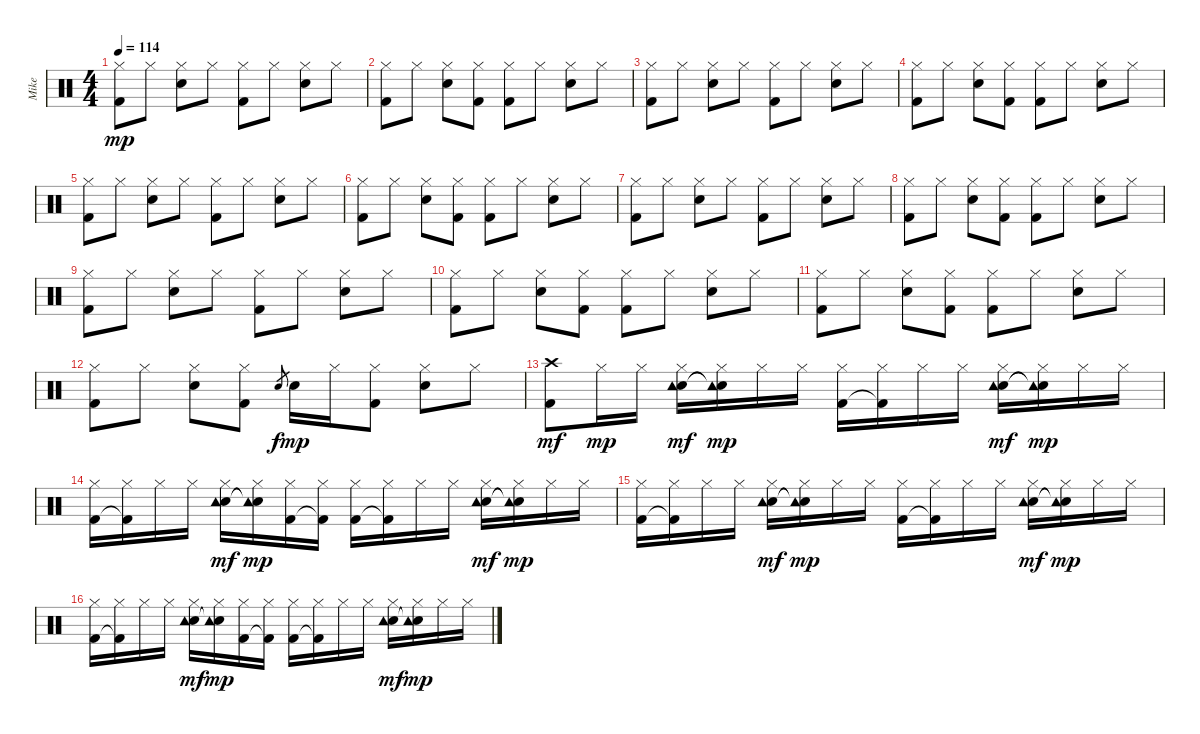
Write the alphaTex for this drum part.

\track ("Mike" "Mike") {instrument percussion}
\staff {score}
\articulation defaults
\ts (4 4)
\tempo 114
\clef neutral
\ks c
("Hi-Hat (closed)" "Kick (hit) 2").8{dy mp} "Hi-Hat (closed)".8 ("Hi-Hat (closed)" "Electric Snare (hit)").8 "Hi-Hat (closed)".8 ("Hi-Hat (closed)" "Kick (hit) 2").8 "Hi-Hat (closed)".8 ("Hi-Hat (closed)" "Electric Snare (hit)").8 "Hi-Hat (closed)".8 |
("Hi-Hat (closed)" "Kick (hit) 2").8 "Hi-Hat (closed)".8 ("Hi-Hat (closed)" "Electric Snare (hit)").8 ("Hi-Hat (closed)" "Kick (hit) 2").8 ("Hi-Hat (closed)" "Kick (hit) 2").8 "Hi-Hat (closed)".8 ("Hi-Hat (closed)" "Electric Snare (hit)").8 "Hi-Hat (closed)".8 |
("Hi-Hat (closed)" "Kick (hit) 2").8 "Hi-Hat (closed)".8 ("Hi-Hat (closed)" "Electric Snare (hit)").8 "Hi-Hat (closed)".8 ("Hi-Hat (closed)" "Kick (hit) 2").8 "Hi-Hat (closed)".8 ("Hi-Hat (closed)" "Electric Snare (hit)").8 "Hi-Hat (closed)".8 |
("Hi-Hat (closed)" "Kick (hit) 2").8 "Hi-Hat (closed)".8 ("Hi-Hat (closed)" "Electric Snare (hit)").8 ("Hi-Hat (closed)" "Kick (hit) 2").8 ("Hi-Hat (closed)" "Kick (hit) 2").8 "Hi-Hat (closed)".8 ("Hi-Hat (closed)" "Electric Snare (hit)").8 "Hi-Hat (closed)".8 |
("Hi-Hat (closed)" "Kick (hit) 2").8 "Hi-Hat (closed)".8 ("Hi-Hat (closed)" "Electric Snare (hit)").8 "Hi-Hat (closed)".8 ("Hi-Hat (closed)" "Kick (hit) 2").8 "Hi-Hat (closed)".8 ("Hi-Hat (closed)" "Electric Snare (hit)").8 "Hi-Hat (closed)".8 |
("Hi-Hat (closed)" "Kick (hit) 2").8 "Hi-Hat (closed)".8 ("Hi-Hat (closed)" "Electric Snare (hit)").8 ("Hi-Hat (closed)" "Kick (hit) 2").8 ("Hi-Hat (closed)" "Kick (hit) 2").8 "Hi-Hat (closed)".8 ("Hi-Hat (closed)" "Electric Snare (hit)").8 "Hi-Hat (closed)".8 |
("Hi-Hat (closed)" "Kick (hit) 2").8 "Hi-Hat (closed)".8 ("Hi-Hat (closed)" "Electric Snare (hit)").8 "Hi-Hat (closed)".8 ("Hi-Hat (closed)" "Kick (hit) 2").8 "Hi-Hat (closed)".8 ("Hi-Hat (closed)" "Electric Snare (hit)").8 "Hi-Hat (closed)".8 |
("Hi-Hat (closed)" "Kick (hit) 2").8 "Hi-Hat (closed)".8 ("Hi-Hat (closed)" "Electric Snare (hit)").8 ("Hi-Hat (closed)" "Kick (hit) 2").8 ("Hi-Hat (closed)" "Kick (hit) 2").8 "Hi-Hat (closed)".8 ("Hi-Hat (closed)" "Electric Snare (hit)").8 "Hi-Hat (closed)".8 |
("Hi-Hat (closed)" "Kick (hit) 2").8 "Hi-Hat (closed)".8 ("Hi-Hat (closed)" "Electric Snare (hit)").8 "Hi-Hat (closed)".8 ("Hi-Hat (closed)" "Kick (hit) 2").8 "Hi-Hat (closed)".8 ("Hi-Hat (closed)" "Electric Snare (hit)").8 "Hi-Hat (closed)".8 |
("Hi-Hat (closed)" "Kick (hit) 2").8 "Hi-Hat (closed)".8 ("Hi-Hat (closed)" "Electric Snare (hit)").8 ("Hi-Hat (closed)" "Kick (hit) 2").8 ("Hi-Hat (closed)" "Kick (hit) 2").8 "Hi-Hat (closed)".8 ("Hi-Hat (closed)" "Electric Snare (hit)").8 "Hi-Hat (closed)".8 |
("Hi-Hat (closed)" "Kick (hit) 2").8 "Hi-Hat (closed)".8 ("Hi-Hat (closed)" "Electric Snare (hit)").8 ("Hi-Hat (closed)" "Kick (hit) 2").8 ("Hi-Hat (closed)" "Kick (hit) 2").8 "Hi-Hat (closed)".8 ("Hi-Hat (closed)" "Electric Snare (hit)").8 "Hi-Hat (closed)".8 |
("Hi-Hat (closed)" "Kick (hit) 2").8 "Hi-Hat (closed)".8 ("Hi-Hat (closed)" "Electric Snare (hit)").8 ("Hi-Hat (closed)" "Kick (hit) 2").8 "Electric Snare (hit)".8{gr dy f} "Electric Snare (hit)".16{dy mp} "Hi-Hat (closed)".16 ("Hi-Hat (closed)" "Kick (hit) 2").8 ("Hi-Hat (closed)" "Electric Snare (hit)").8 "Hi-Hat (closed)".8 |
("Crash high (hit)" "Kick (hit) 2").8{dy mf} "Hi-Hat (closed)".16{dy mp} "Hi-Hat (closed)".16 ("Hi-Hat (closed)" "Electric Snare (hit)" "Tambourine (hit)").16{dy mf} ("Hi-Hat (closed)" "Electric Snare (hit)"{t} "Tambourine (hit)"{t}).16{dy mp} "Hi-Hat (closed)".16 "Hi-Hat (closed)".16 ("Hi-Hat (closed)" "Kick (hit) 2").16 ("Hi-Hat (closed)" "Kick (hit) 2"{t}).16 "Hi-Hat (closed)".16 "Hi-Hat (closed)".16 ("Hi-Hat (closed)" "Electric Snare (hit)" "Tambourine (hit)").16{dy mf} ("Hi-Hat (closed)" "Electric Snare (hit)"{t} "Tambourine (hit)"{t}).16{dy mp} "Hi-Hat (closed)".16 "Hi-Hat (closed)".16 |
("Hi-Hat (closed)" "Kick (hit) 2").16 ("Hi-Hat (closed)" "Kick (hit) 2"{t}).16 "Hi-Hat (closed)".16 "Hi-Hat (closed)".16 ("Hi-Hat (closed)" "Electric Snare (hit)" "Tambourine (hit)").16{dy mf} ("Hi-Hat (closed)" "Electric Snare (hit)"{t} "Tambourine (hit)"{t}).16{dy mp} ("Hi-Hat (closed)" "Kick (hit) 2").16 ("Hi-Hat (closed)" "Kick (hit) 2"{t}).16 ("Hi-Hat (closed)" "Kick (hit) 2").16 ("Hi-Hat (closed)" "Kick (hit) 2"{t}).16 "Hi-Hat (closed)".16 "Hi-Hat (closed)".16 ("Hi-Hat (closed)" "Electric Snare (hit)" "Tambourine (hit)").16{dy mf} ("Hi-Hat (closed)" "Electric Snare (hit)"{t} "Tambourine (hit)"{t}).16{dy mp} "Hi-Hat (closed)".16 "Hi-Hat (closed)".16 |
("Hi-Hat (closed)" "Kick (hit) 2").16 ("Hi-Hat (closed)" "Kick (hit) 2"{t}).16 "Hi-Hat (closed)".16 "Hi-Hat (closed)".16 ("Hi-Hat (closed)" "Electric Snare (hit)" "Tambourine (hit)").16{dy mf} ("Hi-Hat (closed)" "Electric Snare (hit)"{t} "Tambourine (hit)"{t}).16{dy mp} "Hi-Hat (closed)".16 "Hi-Hat (closed)".16 ("Hi-Hat (closed)" "Kick (hit) 2").16 ("Hi-Hat (closed)" "Kick (hit) 2"{t}).16 "Hi-Hat (closed)".16 "Hi-Hat (closed)".16 ("Hi-Hat (closed)" "Electric Snare (hit)" "Tambourine (hit)").16{dy mf} ("Hi-Hat (closed)" "Electric Snare (hit)"{t} "Tambourine (hit)"{t}).16{dy mp} "Hi-Hat (closed)".16 "Hi-Hat (closed)".16 |
("Hi-Hat (closed)" "Kick (hit) 2").16 ("Hi-Hat (closed)" "Kick (hit) 2"{t}).16 "Hi-Hat (closed)".16 "Hi-Hat (closed)".16 ("Hi-Hat (closed)" "Electric Snare (hit)" "Tambourine (hit)").16{dy mf} ("Hi-Hat (closed)" "Electric Snare (hit)"{t} "Tambourine (hit)"{t}).16{dy mp} ("Hi-Hat (closed)" "Kick (hit) 2").16 ("Hi-Hat (closed)" "Kick (hit) 2"{t}).16 ("Hi-Hat (closed)" "Kick (hit) 2").16 ("Hi-Hat (closed)" "Kick (hit) 2"{t}).16 "Hi-Hat (closed)".16 "Hi-Hat (closed)".16 ("Hi-Hat (closed)" "Electric Snare (hit)" "Tambourine (hit)").16{dy mf} ("Hi-Hat (closed)" "Electric Snare (hit)"{t} "Tambourine (hit)"{t}).16{dy mp} "Hi-Hat (closed)".16 "Hi-Hat (closed)".16
